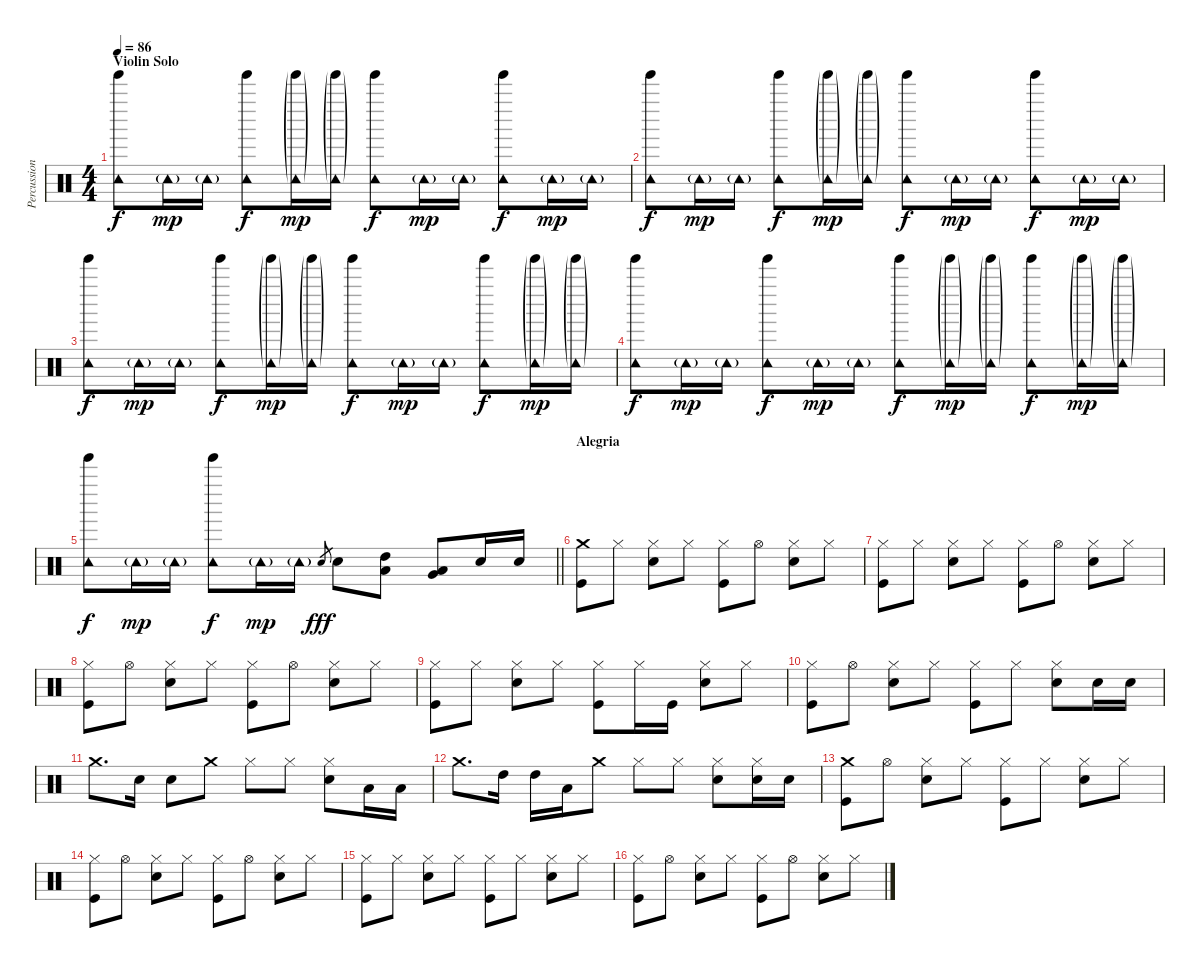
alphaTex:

\track ("Percussion 1" "Percussion") {instrument percussion}
\staff {score}
\articulation defaults
\ts (4 4)
\section ("" "Violin Solo")
\tempo 86
\clef neutral
\ks c
("Tinkle Bell (hit)" "Tambourine (hit)").8{dy f} "Tambourine (hit)"{g}.16{dy mp} "Tambourine (hit)"{g}.16 ("Tinkle Bell (hit)" "Tambourine (hit)").8{dy f} ("Tinkle Bell (hit)"{g} "Tambourine (hit)"{g}).16{dy mp} ("Tinkle Bell (hit)"{g} "Tambourine (hit)"{g}).16 ("Tinkle Bell (hit)" "Tambourine (hit)").8{dy f} "Tambourine (hit)"{g}.16{dy mp} "Tambourine (hit)"{g}.16 ("Tinkle Bell (hit)" "Tambourine (hit)").8{dy f} "Tambourine (hit)"{g}.16{dy mp} "Tambourine (hit)"{g}.16 |
("Tinkle Bell (hit)" "Tambourine (hit)").8{dy f} "Tambourine (hit)"{g}.16{dy mp} "Tambourine (hit)"{g}.16 ("Tinkle Bell (hit)" "Tambourine (hit)").8{dy f} ("Tinkle Bell (hit)"{g} "Tambourine (hit)"{g}).16{dy mp} ("Tinkle Bell (hit)"{g} "Tambourine (hit)"{g}).16 ("Tinkle Bell (hit)" "Tambourine (hit)").8{dy f} "Tambourine (hit)"{g}.16{dy mp} "Tambourine (hit)"{g}.16 ("Tinkle Bell (hit)" "Tambourine (hit)").8{dy f} "Tambourine (hit)"{g}.16{dy mp} "Tambourine (hit)"{g}.16 |
("Tinkle Bell (hit)" "Tambourine (hit)").8{dy f} "Tambourine (hit)"{g}.16{dy mp} "Tambourine (hit)"{g}.16 ("Tinkle Bell (hit)" "Tambourine (hit)").8{dy f} ("Tinkle Bell (hit)"{g} "Tambourine (hit)"{g}).16{dy mp} ("Tinkle Bell (hit)"{g} "Tambourine (hit)"{g}).16 ("Tinkle Bell (hit)" "Tambourine (hit)").8{dy f} "Tambourine (hit)"{g}.16{dy mp} "Tambourine (hit)"{g}.16 ("Tinkle Bell (hit)" "Tambourine (hit)").8{dy f} ("Tinkle Bell (hit)"{g} "Tambourine (hit)"{g}).16{dy mp} ("Tinkle Bell (hit)"{g} "Tambourine (hit)"{g}).16 |
("Tinkle Bell (hit)" "Tambourine (hit)").8{dy f} "Tambourine (hit)"{g}.16{dy mp} "Tambourine (hit)"{g}.16 ("Tinkle Bell (hit)" "Tambourine (hit)").8{dy f} "Tambourine (hit)"{g}.16{dy mp} "Tambourine (hit)"{g}.16 ("Tinkle Bell (hit)" "Tambourine (hit)").8{dy f} ("Tinkle Bell (hit)"{g} "Tambourine (hit)"{g}).16{dy mp} ("Tinkle Bell (hit)"{g} "Tambourine (hit)"{g}).16 ("Tinkle Bell (hit)" "Tambourine (hit)").8{dy f} ("Tinkle Bell (hit)"{g} "Tambourine (hit)"{g}).16{dy mp} ("Tinkle Bell (hit)"{g} "Tambourine (hit)"{g}).16 |
\barLineRight lightlight
("Tinkle Bell (hit)" "Tambourine (hit)").8{dy f} "Tambourine (hit)"{g}.16{dy mp} "Tambourine (hit)"{g}.16 ("Tinkle Bell (hit)" "Tambourine (hit)").8{dy f} "Tambourine (hit)"{g}.16{dy mp} "Tambourine (hit)"{g}.16 "Electric Snare (hit)".8{gr dy fff} "Electric Snare (hit)".8 ("Low Tom (hit)" "High Tom (hit)").8 ("Very Low Tom (hit)" "Low Tom (hit)").8 "Electric Snare (hit)".16 "Electric Snare (hit)".16 |
\section ("" "Alegria")
("Crash medium (hit)" "Kick (hit)").8 "Hi-Hat (closed)".8 ("Hi-Hat (closed)" "Electric Snare (hit)").8 "Hi-Hat (closed)".8 ("Hi-Hat (closed)" "Kick (hit)").8 "Hi-Hat (open)".8 ("Hi-Hat (closed)" "Electric Snare (hit)").8 "Hi-Hat (closed)".8 |
("Hi-Hat (closed)" "Kick (hit)").8 "Hi-Hat (closed)".8 ("Hi-Hat (closed)" "Electric Snare (hit)").8 "Hi-Hat (closed)".8 ("Hi-Hat (closed)" "Kick (hit)").8 "Hi-Hat (open)".8 ("Hi-Hat (closed)" "Electric Snare (hit)").8 "Hi-Hat (closed)".8 |
("Hi-Hat (closed)" "Kick (hit)").8 "Hi-Hat (open)".8 ("Hi-Hat (closed)" "Electric Snare (hit)").8 "Hi-Hat (closed)".8 ("Hi-Hat (closed)" "Kick (hit)").8 "Hi-Hat (open)".8 ("Hi-Hat (closed)" "Electric Snare (hit)").8 "Hi-Hat (closed)".8 |
("Hi-Hat (closed)" "Kick (hit)").8 "Hi-Hat (closed)".8 ("Hi-Hat (closed)" "Electric Snare (hit)").8 "Hi-Hat (closed)".8 ("Hi-Hat (closed)" "Kick (hit)").8 "Hi-Hat (closed)".16 "Kick (hit)".16 ("Hi-Hat (closed)" "Electric Snare (hit)").8 "Hi-Hat (closed)".8 |
("Hi-Hat (closed)" "Kick (hit)").8 "Hi-Hat (open)".8 ("Hi-Hat (closed)" "Electric Snare (hit)").8 "Hi-Hat (closed)".8 ("Hi-Hat (closed)" "Kick (hit)").8 "Hi-Hat (closed)".8 ("Hi-Hat (closed)" "Electric Snare (hit)").8 "Electric Snare (hit)".16 "Electric Snare (hit)".16 |
"Crash medium (hit)".8{d} "Electric Snare (hit)".16 "Electric Snare (hit)".8 "Crash medium (hit)".8 "Hi-Hat (closed)".8 "Hi-Hat (closed)".8 ("Hi-Hat (closed)" "Electric Snare (hit)").8 "Low Tom (hit)".16 "Low Tom (hit)".16 |
"Crash medium (hit)".8{d} "High Tom (hit)".16 "High Tom (hit)".16 "Low Tom (hit)".16 "Crash medium (hit)".8 "Hi-Hat (closed)".8 "Hi-Hat (closed)".8 ("Hi-Hat (closed)" "Electric Snare (hit)").8 ("Hi-Hat (closed)" "Electric Snare (hit)").16 "Electric Snare (hit)".16 |
("Crash medium (hit)" "Kick (hit)").8 "Hi-Hat (open)".8 ("Hi-Hat (closed)" "Electric Snare (hit)").8 "Hi-Hat (closed)".8 ("Hi-Hat (closed)" "Kick (hit)").8 "Hi-Hat (closed)".8 ("Hi-Hat (closed)" "Electric Snare (hit)").8 "Hi-Hat (closed)".8 |
("Hi-Hat (closed)" "Kick (hit)").8 "Hi-Hat (open)".8 ("Hi-Hat (closed)" "Electric Snare (hit)").8 "Hi-Hat (closed)".8 ("Hi-Hat (closed)" "Kick (hit)").8 "Hi-Hat (open)".8 ("Hi-Hat (closed)" "Electric Snare (hit)").8 "Hi-Hat (closed)".8 |
("Hi-Hat (closed)" "Kick (hit)").8 "Hi-Hat (closed)".8 ("Hi-Hat (closed)" "Electric Snare (hit)").8 "Hi-Hat (closed)".8 ("Hi-Hat (closed)" "Kick (hit)").8 "Hi-Hat (closed)".8 ("Hi-Hat (closed)" "Electric Snare (hit)").8 "Hi-Hat (closed)".8 |
("Hi-Hat (closed)" "Kick (hit)").8 "Hi-Hat (open)".8 ("Hi-Hat (closed)" "Electric Snare (hit)").8 "Hi-Hat (closed)".8 ("Hi-Hat (closed)" "Kick (hit)").8 "Hi-Hat (open)".8 ("Hi-Hat (closed)" "Electric Snare (hit)").8 "Hi-Hat (closed)".8
